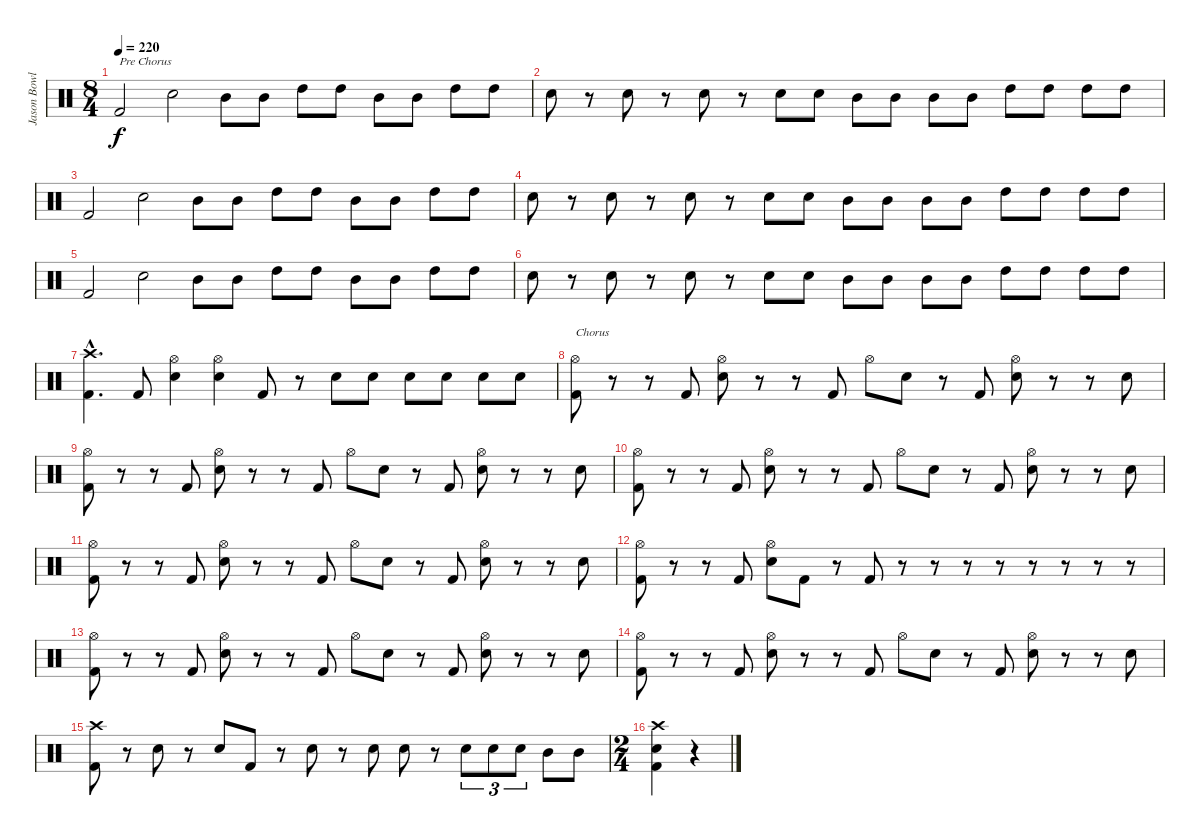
\track ("Jason Bowld" "Jason Bowl") {instrument percussion}
\staff {score}
\articulation defaults
\ts (8 4)
\tempo 220
\clef neutral
\ks c "Kick (hit) 2".2{txt "Pre Chorus" dy f} "Snare (hit) 2".2 "Mid Tom (hit)".8 "Mid Tom (hit)".8 "High Tom (hit)".8 "High Tom (hit)".8 "Mid Tom (hit)".8 "Mid Tom (hit)".8 "High Tom (hit)".8 "High Tom (hit)".8
|
"Snare (hit) 2".8 r.8 "Snare (hit) 2".8 r.8 "Snare (hit) 2".8 r.8 "Snare (hit) 2".8 "Snare (hit) 2".8 "Mid Tom (hit)".8 "Mid Tom (hit)".8 "Mid Tom (hit)".8 "Mid Tom (hit)".8 "High Tom (hit)".8 "High Tom (hit)".8 "High Tom (hit)".8 "High Tom (hit)".8 |
"Kick (hit) 2".2 "Snare (hit) 2".2 "Mid Tom (hit)".8 "Mid Tom (hit)".8 "High Tom (hit)".8 "High Tom (hit)".8 "Mid Tom (hit)".8 "Mid Tom (hit)".8 "High Tom (hit)".8 "High Tom (hit)".8 |
"Snare (hit) 2".8 r.8 "Snare (hit) 2".8 r.8 "Snare (hit) 2".8 r.8 "Snare (hit) 2".8 "Snare (hit) 2".8 "Mid Tom (hit)".8 "Mid Tom (hit)".8 "Mid Tom (hit)".8 "Mid Tom (hit)".8 "High Tom (hit)".8 "High Tom (hit)".8 "High Tom (hit)".8 "High Tom (hit)".8 |
"Kick (hit) 2".2 "Snare (hit) 2".2 "Mid Tom (hit)".8 "Mid Tom (hit)".8 "High Tom (hit)".8 "High Tom (hit)".8 "Mid Tom (hit)".8 "Mid Tom (hit)".8 "High Tom (hit)".8 "High Tom (hit)".8 |
"Snare (hit) 2".8 r.8 "Snare (hit) 2".8 r.8 "Snare (hit) 2".8 r.8 "Snare (hit) 2".8 "Snare (hit) 2".8 "Mid Tom (hit)".8 "Mid Tom (hit)".8 "Mid Tom (hit)".8 "Mid Tom (hit)".8 "High Tom (hit)".8 "High Tom (hit)".8 "High Tom (hit)".8 "High Tom (hit)".8 |
("Crash high (hit)"{hac} "Kick (hit) 2"{hac}).4{d} "Kick (hit) 2".8 ("Hi-Hat (open)" "Snare (hit) 2").4 ("Hi-Hat (open)" "Snare (hit) 2").4 "Kick (hit) 2".8 r.8 "Snare (hit) 2".8 "Snare (hit) 2".8 "Snare (hit) 2".8 "Snare (hit) 2".8 "Snare (hit) 2".8 "Snare (hit) 2".8 |
("Hi-Hat (open)" "Kick (hit) 2").8{txt "Chorus"} r.8 r.8 "Kick (hit) 2".8 ("Hi-Hat (open)" "Snare (hit) 2").8 r.8 r.8 "Kick (hit) 2".8 "Hi-Hat (open)".8 "Snare (hit) 2".8 r.8 "Kick (hit) 2".8 ("Hi-Hat (open)" "Snare (hit) 2").8 r.8 r.8 "Snare (hit) 2".8 |
("Hi-Hat (open)" "Kick (hit) 2").8 r.8 r.8 "Kick (hit) 2".8 ("Hi-Hat (open)" "Snare (hit) 2").8 r.8 r.8 "Kick (hit) 2".8 "Hi-Hat (open)".8 "Snare (hit) 2".8 r.8 "Kick (hit) 2".8 ("Hi-Hat (open)" "Snare (hit) 2").8 r.8 r.8 "Snare (hit) 2".8 |
("Hi-Hat (open)" "Kick (hit) 2").8 r.8 r.8 "Kick (hit) 2".8 ("Hi-Hat (open)" "Snare (hit) 2").8 r.8 r.8 "Kick (hit) 2".8 "Hi-Hat (open)".8 "Snare (hit) 2".8 r.8 "Kick (hit) 2".8 ("Hi-Hat (open)" "Snare (hit) 2").8 r.8 r.8 "Snare (hit) 2".8 |
("Hi-Hat (open)" "Kick (hit) 2").8 r.8 r.8 "Kick (hit) 2".8 ("Hi-Hat (open)" "Snare (hit) 2").8 r.8 r.8 "Kick (hit) 2".8 "Hi-Hat (open)".8 "Snare (hit) 2".8 r.8 "Kick (hit) 2".8 ("Hi-Hat (open)" "Snare (hit) 2").8 r.8 r.8 "Snare (hit) 2".8 |
("Hi-Hat (open)" "Kick (hit) 2").8 r.8 r.8 "Kick (hit) 2".8 ("Hi-Hat (open)" "Snare (hit) 2").8 "Kick (hit) 2".8 r.8 "Kick (hit) 2".8 r.8 r.8 r.8 r.8 r.8 r.8 r.8 r.8 |
("Hi-Hat (open)" "Kick (hit) 2").8 r.8 r.8 "Kick (hit) 2".8 ("Hi-Hat (open)" "Snare (hit) 2").8 r.8 r.8 "Kick (hit) 2".8 "Hi-Hat (open)".8 "Snare (hit) 2".8 r.8 "Kick (hit) 2".8 ("Hi-Hat (open)" "Snare (hit) 2").8 r.8 r.8 "Snare (hit) 2".8 |
("Hi-Hat (open)" "Kick (hit) 2").8 r.8 r.8 "Kick (hit) 2".8 ("Hi-Hat (open)" "Snare (hit) 2").8 r.8 r.8 "Kick (hit) 2".8 "Hi-Hat (open)".8 "Snare (hit) 2".8 r.8 "Kick (hit) 2".8 ("Hi-Hat (open)" "Snare (hit) 2").8 r.8 r.8 "Snare (hit) 2".8 |
("Crash high (hit)" "Kick (hit) 2").8 r.8 "Snare (hit) 2".8 r.8 "Snare (hit) 2".8 "Kick (hit) 2".8 r.8 "Snare (hit) 2".8 r.8 "Snare (hit) 2".8 "Snare (hit) 2".8 r.8 "Snare (hit) 2".8{tu (3 2)} "Snare (hit) 2".8{tu (3 2)} "Snare (hit) 2".8{tu (3 2)} "Mid Tom (hit)".8 "Mid Tom (hit)".8 |
\ts (2 4)
("Kick (hit) 2" "Snare (hit) 2" "Crash high (hit)").4 r.4
